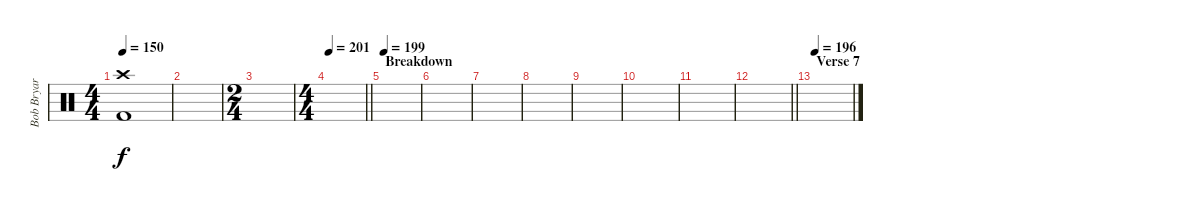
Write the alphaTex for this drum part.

\track ("Bob Bryar (percussion)" "Bob Bryar ") {instrument percussion}
\staff {score}
\articulation defaults
\ts (4 4)
\tempo 150
\clef neutral
\ks c
("Crash high (hit)" "Kick (hit) 2").1{dy f} |
|
\ts (2 4)
|
\ts (4 4)
\tempo 201
\barLineRight lightlight
|
\section ("" "Breakdown")
\tempo 199
|
|
|
|
|
|
|
\barLineRight lightlight
|
\section ("" "Verse 7")
\tempo 196
